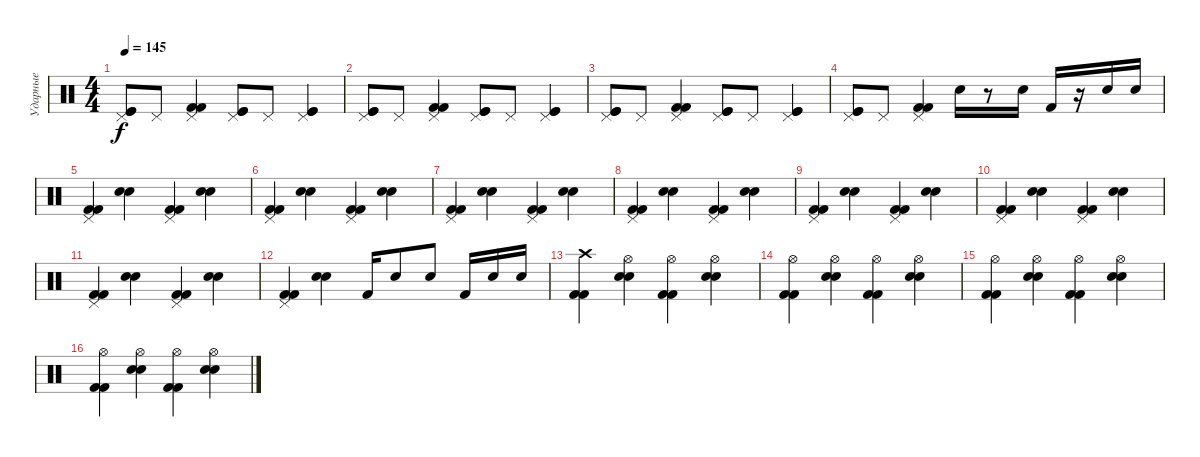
\track ("Ударные" "Ударные") {instrument percussion}
\staff {score}
\articulation defaults
\ts (4 4)
\tempo 145
\clef neutral
\ks c
("Pedal Hi-Hat (hit)" "Kick (hit)" "Kick (hit)").8{dy f} "Pedal Hi-Hat (hit)".8 ("Pedal Hi-Hat (hit)" "Kick (hit) 2" "Kick (hit) 2").4 ("Pedal Hi-Hat (hit)" "Kick (hit)" "Kick (hit)").8 "Pedal Hi-Hat (hit)".8 ("Pedal Hi-Hat (hit)" "Kick (hit)" "Kick (hit)").4 |
("Pedal Hi-Hat (hit)" "Kick (hit)" "Kick (hit)").8 "Pedal Hi-Hat (hit)".8 ("Pedal Hi-Hat (hit)" "Kick (hit) 2" "Kick (hit) 2").4 ("Pedal Hi-Hat (hit)" "Kick (hit)" "Kick (hit)").8 "Pedal Hi-Hat (hit)".8 ("Pedal Hi-Hat (hit)" "Kick (hit)" "Kick (hit)").4 |
("Pedal Hi-Hat (hit)" "Kick (hit)" "Kick (hit)").8 "Pedal Hi-Hat (hit)".8 ("Pedal Hi-Hat (hit)" "Kick (hit) 2" "Kick (hit) 2").4 ("Pedal Hi-Hat (hit)" "Kick (hit)" "Kick (hit)").8 "Pedal Hi-Hat (hit)".8 ("Pedal Hi-Hat (hit)" "Kick (hit)" "Kick (hit)").4 |
("Pedal Hi-Hat (hit)" "Kick (hit)" "Kick (hit)").8 "Pedal Hi-Hat (hit)".8 ("Pedal Hi-Hat (hit)" "Kick (hit) 2" "Kick (hit) 2").4 "Snare (hit) 2".16 r.8 "Snare (hit) 2".16 "Kick (hit) 2".16 r.16 "Snare (hit) 2".16 "Snare (hit) 2".16 |
("Pedal Hi-Hat (hit)" "Kick (hit) 2" "Kick (hit) 2").4 ("Snare (hit) 2" "Snare (hit) 2").4 ("Pedal Hi-Hat (hit)" "Kick (hit) 2" "Kick (hit) 2").4 ("Snare (hit) 2" "Snare (hit) 2").4 |
("Pedal Hi-Hat (hit)" "Kick (hit) 2" "Kick (hit) 2").4 ("Snare (hit) 2" "Snare (hit) 2").4 ("Pedal Hi-Hat (hit)" "Kick (hit) 2" "Kick (hit) 2").4 ("Snare (hit) 2" "Snare (hit) 2").4 |
("Pedal Hi-Hat (hit)" "Kick (hit) 2" "Kick (hit) 2").4 ("Snare (hit) 2" "Snare (hit) 2").4 ("Pedal Hi-Hat (hit)" "Kick (hit) 2" "Kick (hit) 2").4 ("Snare (hit) 2" "Snare (hit) 2").4 |
("Pedal Hi-Hat (hit)" "Kick (hit) 2" "Kick (hit) 2").4 ("Snare (hit) 2" "Snare (hit) 2").4 ("Pedal Hi-Hat (hit)" "Kick (hit) 2" "Kick (hit) 2").4 ("Snare (hit) 2" "Snare (hit) 2").4 |
("Pedal Hi-Hat (hit)" "Kick (hit) 2" "Kick (hit) 2").4 ("Snare (hit) 2" "Snare (hit) 2").4 ("Pedal Hi-Hat (hit)" "Kick (hit) 2" "Kick (hit) 2").4 ("Snare (hit) 2" "Snare (hit) 2").4 |
("Pedal Hi-Hat (hit)" "Kick (hit) 2" "Kick (hit) 2").4 ("Snare (hit) 2" "Snare (hit) 2").4 ("Pedal Hi-Hat (hit)" "Kick (hit) 2" "Kick (hit) 2").4 ("Snare (hit) 2" "Snare (hit) 2").4 |
("Pedal Hi-Hat (hit)" "Kick (hit) 2" "Kick (hit) 2").4 ("Snare (hit) 2" "Snare (hit) 2").4 ("Pedal Hi-Hat (hit)" "Kick (hit) 2" "Kick (hit) 2").4 ("Snare (hit) 2" "Snare (hit) 2").4 |
("Pedal Hi-Hat (hit)" "Kick (hit) 2" "Kick (hit) 2").4 ("Snare (hit) 2" "Snare (hit) 2").4 "Kick (hit) 2".16 "Snare (hit) 2".8 "Snare (hit) 2".8 "Kick (hit) 2".16 "Snare (hit) 2".16 "Snare (hit) 2".16 |
("Crash high (hit)" "Kick (hit) 2" "Kick (hit) 2").4 ("Hi-Hat (open)" "Electric Snare (hit)" "Electric Snare (hit)").4 ("Hi-Hat (open)" "Kick (hit) 2" "Kick (hit) 2").4 ("Hi-Hat (open)" "Electric Snare (hit)" "Electric Snare (hit)").4 |
("Hi-Hat (open)" "Kick (hit) 2" "Kick (hit) 2").4 ("Hi-Hat (open)" "Electric Snare (hit)" "Electric Snare (hit)").4 ("Hi-Hat (open)" "Kick (hit) 2" "Kick (hit) 2").4 ("Hi-Hat (open)" "Electric Snare (hit)" "Electric Snare (hit)").4 |
("Hi-Hat (open)" "Kick (hit) 2" "Kick (hit) 2").4 ("Hi-Hat (open)" "Electric Snare (hit)" "Electric Snare (hit)").4 ("Hi-Hat (open)" "Kick (hit) 2" "Kick (hit) 2").4 ("Hi-Hat (open)" "Electric Snare (hit)" "Electric Snare (hit)").4 |
("Hi-Hat (open)" "Kick (hit) 2" "Kick (hit) 2").4 ("Hi-Hat (open)" "Electric Snare (hit)" "Electric Snare (hit)").4 ("Hi-Hat (open)" "Kick (hit) 2" "Kick (hit) 2").4 ("Hi-Hat (open)" "Electric Snare (hit)" "Electric Snare (hit)").4
